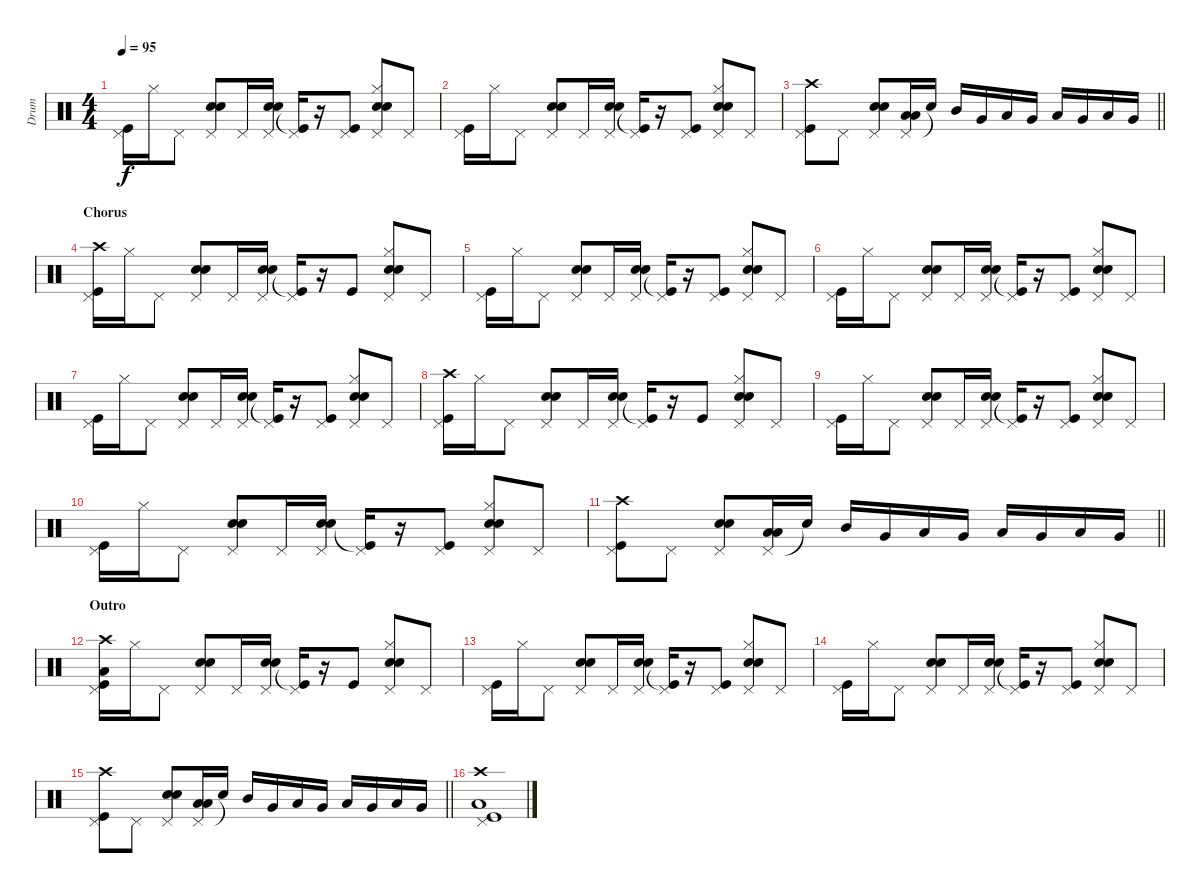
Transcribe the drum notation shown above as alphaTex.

\track ("Drum" "Drum") {instrument percussion}
\staff {score}
\articulation defaults
\ts (4 4)
\tempo 95
\clef neutral
\ks c
("Pedal Hi-Hat (hit)" "Kick (hit)").16{dy f} "Hi-Hat (closed)".16 "Pedal Hi-Hat (hit)".8 ("Pedal Hi-Hat (hit)" "Snare (hit) 2" "Snare (hit) 2").8 "Pedal Hi-Hat (hit)".16 ("Pedal Hi-Hat (hit)" "Snare (hit) 2" "Snare (hit) 2").16 ("Pedal Hi-Hat (hit)" "Kick (hit)"{t}).16 r.16 ("Pedal Hi-Hat (hit)" "Kick (hit)").8 ("Pedal Hi-Hat (hit)" "Hi-Hat (closed)" "Snare (hit) 2" "Snare (hit) 2").8 "Pedal Hi-Hat (hit)".8 |
("Pedal Hi-Hat (hit)" "Kick (hit)").16 "Hi-Hat (closed)".16 "Pedal Hi-Hat (hit)".8 ("Pedal Hi-Hat (hit)" "Snare (hit) 2" "Snare (hit) 2").8 "Pedal Hi-Hat (hit)".16 ("Pedal Hi-Hat (hit)" "Snare (hit) 2" "Snare (hit) 2").16 ("Pedal Hi-Hat (hit)" "Kick (hit)"{t}).16 r.16 ("Pedal Hi-Hat (hit)" "Kick (hit)").8 ("Pedal Hi-Hat (hit)" "Hi-Hat (closed)" "Snare (hit) 2" "Snare (hit) 2").8 "Pedal Hi-Hat (hit)".8 |
\barLineRight lightlight
("Pedal Hi-Hat (hit)" "Crash high (hit)" "Kick (hit)").8 "Pedal Hi-Hat (hit)".8 ("Pedal Hi-Hat (hit)" "Snare (hit) 2" "Snare (hit) 2").8 ("Pedal Hi-Hat (hit)" "Low Tom (hit)" "Low Tom (hit)").16 "Snare (hit) 2"{t}.16 "Mid Tom (hit)".16 "Very Low Tom (hit)".16 "Low Tom (hit)".16 "Very Low Tom (hit)".16 "Low Floor Tom (hit)".16 "Very Low Tom (hit)".16 "Low Floor Tom (hit)".16 "Very Low Tom (hit)".16 |
\section ("" "Chorus")
("Pedal Hi-Hat (hit)" "Crash high (hit)" "Kick (hit)").16 "Hi-Hat (closed)".16 "Pedal Hi-Hat (hit)".8 ("Pedal Hi-Hat (hit)" "Snare (hit) 2" "Snare (hit) 2").8 "Pedal Hi-Hat (hit)".16 ("Pedal Hi-Hat (hit)" "Snare (hit) 2" "Snare (hit) 2").16 ("Pedal Hi-Hat (hit)" "Kick (hit)"{t}).16 r.16 "Kick (hit)".8 ("Pedal Hi-Hat (hit)" "Hi-Hat (closed)" "Snare (hit) 2" "Snare (hit) 2").8 "Pedal Hi-Hat (hit)".8 |
("Pedal Hi-Hat (hit)" "Kick (hit)").16 "Hi-Hat (closed)".16 "Pedal Hi-Hat (hit)".8 ("Pedal Hi-Hat (hit)" "Snare (hit) 2" "Snare (hit) 2").8 "Pedal Hi-Hat (hit)".16 ("Pedal Hi-Hat (hit)" "Snare (hit) 2" "Snare (hit) 2").16 ("Pedal Hi-Hat (hit)" "Kick (hit)"{t}).16 r.16 ("Pedal Hi-Hat (hit)" "Kick (hit)").8 ("Pedal Hi-Hat (hit)" "Hi-Hat (closed)" "Snare (hit) 2" "Snare (hit) 2").8 "Pedal Hi-Hat (hit)".8 |
("Pedal Hi-Hat (hit)" "Kick (hit)").16 "Hi-Hat (closed)".16 "Pedal Hi-Hat (hit)".8 ("Pedal Hi-Hat (hit)" "Snare (hit) 2" "Snare (hit) 2").8 "Pedal Hi-Hat (hit)".16 ("Pedal Hi-Hat (hit)" "Snare (hit) 2" "Snare (hit) 2").16 ("Pedal Hi-Hat (hit)" "Kick (hit)"{t}).16 r.16 ("Pedal Hi-Hat (hit)" "Kick (hit)").8 ("Pedal Hi-Hat (hit)" "Hi-Hat (closed)" "Snare (hit) 2" "Snare (hit) 2").8 "Pedal Hi-Hat (hit)".8 |
("Pedal Hi-Hat (hit)" "Kick (hit)").16 "Hi-Hat (closed)".16 "Pedal Hi-Hat (hit)".8 ("Pedal Hi-Hat (hit)" "Snare (hit) 2" "Snare (hit) 2").8 "Pedal Hi-Hat (hit)".16 ("Pedal Hi-Hat (hit)" "Snare (hit) 2" "Snare (hit) 2").16 ("Pedal Hi-Hat (hit)" "Kick (hit)"{t}).16 r.16 ("Pedal Hi-Hat (hit)" "Kick (hit)").8 ("Pedal Hi-Hat (hit)" "Hi-Hat (closed)" "Snare (hit) 2" "Snare (hit) 2").8 "Pedal Hi-Hat (hit)".8 |
("Pedal Hi-Hat (hit)" "Crash high (hit)" "Kick (hit)").16 "Hi-Hat (closed)".16 "Pedal Hi-Hat (hit)".8 ("Pedal Hi-Hat (hit)" "Snare (hit) 2" "Snare (hit) 2").8 "Pedal Hi-Hat (hit)".16 ("Pedal Hi-Hat (hit)" "Snare (hit) 2" "Snare (hit) 2").16 ("Pedal Hi-Hat (hit)" "Kick (hit)"{t}).16 r.16 "Kick (hit)".8 ("Pedal Hi-Hat (hit)" "Hi-Hat (closed)" "Snare (hit) 2" "Snare (hit) 2").8 "Pedal Hi-Hat (hit)".8 |
("Pedal Hi-Hat (hit)" "Kick (hit)").16 "Hi-Hat (closed)".16 "Pedal Hi-Hat (hit)".8 ("Pedal Hi-Hat (hit)" "Snare (hit) 2" "Snare (hit) 2").8 "Pedal Hi-Hat (hit)".16 ("Pedal Hi-Hat (hit)" "Snare (hit) 2" "Snare (hit) 2").16 ("Pedal Hi-Hat (hit)" "Kick (hit)"{t}).16 r.16 ("Pedal Hi-Hat (hit)" "Kick (hit)").8 ("Pedal Hi-Hat (hit)" "Hi-Hat (closed)" "Snare (hit) 2" "Snare (hit) 2").8 "Pedal Hi-Hat (hit)".8 |
("Pedal Hi-Hat (hit)" "Kick (hit)").16 "Hi-Hat (closed)".16 "Pedal Hi-Hat (hit)".8 ("Pedal Hi-Hat (hit)" "Snare (hit) 2" "Snare (hit) 2").8 "Pedal Hi-Hat (hit)".16 ("Pedal Hi-Hat (hit)" "Snare (hit) 2" "Snare (hit) 2").16 ("Pedal Hi-Hat (hit)" "Kick (hit)"{t}).16 r.16 ("Pedal Hi-Hat (hit)" "Kick (hit)").8 ("Pedal Hi-Hat (hit)" "Hi-Hat (closed)" "Snare (hit) 2" "Snare (hit) 2").8 "Pedal Hi-Hat (hit)".8 |
\barLineRight lightlight
("Pedal Hi-Hat (hit)" "Crash high (hit)" "Kick (hit)").8 "Pedal Hi-Hat (hit)".8 ("Pedal Hi-Hat (hit)" "Snare (hit) 2" "Snare (hit) 2").8 ("Pedal Hi-Hat (hit)" "Low Tom (hit)" "Low Tom (hit)").16 "Snare (hit) 2"{t}.16 "Mid Tom (hit)".16 "Very Low Tom (hit)".16 "Low Tom (hit)".16 "Very Low Tom (hit)".16 "Low Floor Tom (hit)".16 "Very Low Tom (hit)".16 "Low Floor Tom (hit)".16 "Very Low Tom (hit)".16 |
\section ("" "Outro")
("Pedal Hi-Hat (hit)" "Crash high (hit)" "Low Floor Tom (hit)" "Kick (hit)").16 "Hi-Hat (closed)".16 "Pedal Hi-Hat (hit)".8 ("Pedal Hi-Hat (hit)" "Snare (hit) 2" "Snare (hit) 2").8 "Pedal Hi-Hat (hit)".16 ("Pedal Hi-Hat (hit)" "Snare (hit) 2" "Snare (hit) 2").16 ("Pedal Hi-Hat (hit)" "Kick (hit)"{t}).16 r.16 "Kick (hit)".8 ("Pedal Hi-Hat (hit)" "Hi-Hat (closed)" "Snare (hit) 2" "Snare (hit) 2").8 "Pedal Hi-Hat (hit)".8 |
("Pedal Hi-Hat (hit)" "Kick (hit)").16 "Hi-Hat (closed)".16 "Pedal Hi-Hat (hit)".8 ("Pedal Hi-Hat (hit)" "Snare (hit) 2" "Snare (hit) 2").8 "Pedal Hi-Hat (hit)".16 ("Pedal Hi-Hat (hit)" "Snare (hit) 2" "Snare (hit) 2").16 ("Pedal Hi-Hat (hit)" "Kick (hit)"{t}).16 r.16 ("Pedal Hi-Hat (hit)" "Kick (hit)").8 ("Pedal Hi-Hat (hit)" "Hi-Hat (closed)" "Snare (hit) 2" "Snare (hit) 2").8 "Pedal Hi-Hat (hit)".8 |
("Pedal Hi-Hat (hit)" "Kick (hit)").16 "Hi-Hat (closed)".16 "Pedal Hi-Hat (hit)".8 ("Pedal Hi-Hat (hit)" "Snare (hit) 2" "Snare (hit) 2").8 "Pedal Hi-Hat (hit)".16 ("Pedal Hi-Hat (hit)" "Snare (hit) 2" "Snare (hit) 2").16 ("Pedal Hi-Hat (hit)" "Kick (hit)"{t}).16 r.16 ("Pedal Hi-Hat (hit)" "Kick (hit)").8 ("Pedal Hi-Hat (hit)" "Hi-Hat (closed)" "Snare (hit) 2" "Snare (hit) 2").8 "Pedal Hi-Hat (hit)".8 |
\barLineRight lightlight
("Pedal Hi-Hat (hit)" "Crash high (hit)" "Kick (hit)").8 "Pedal Hi-Hat (hit)".8 ("Pedal Hi-Hat (hit)" "Snare (hit) 2" "Snare (hit) 2").8 ("Pedal Hi-Hat (hit)" "Low Tom (hit)" "Low Tom (hit)").16 "Snare (hit) 2"{t}.16 "Mid Tom (hit)".16 "Very Low Tom (hit)".16 "Low Tom (hit)".16 "Very Low Tom (hit)".16 "Low Floor Tom (hit)".16 "Very Low Tom (hit)".16 "Low Floor Tom (hit)".16 "Very Low Tom (hit)".16 |
("Pedal Hi-Hat (hit)" "Crash high (hit)" "Low Floor Tom (hit)" "Kick (hit)").1
